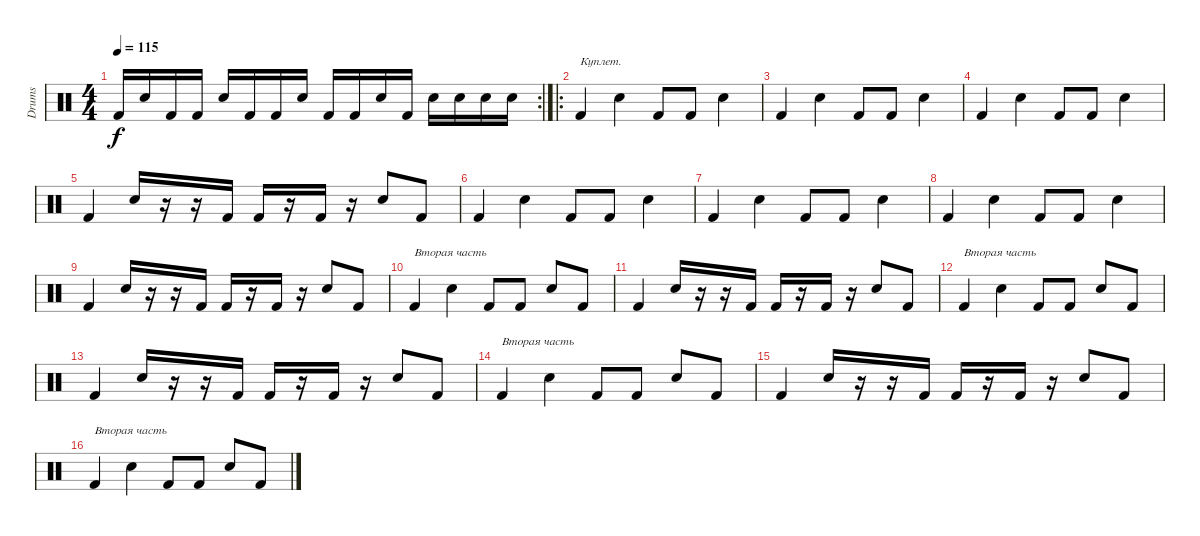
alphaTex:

\track ("Drums" "Drums") {instrument percussion}
\staff {score}
\articulation defaults
\rc 2
\ts (4 4)
\tempo 115
\clef neutral
\ks c "Kick (hit) 2".16{dy f} "Snare (hit) 2".16 "Kick (hit) 2".16 "Kick (hit) 2".16 "Snare (hit) 2".16 "Kick (hit) 2".16 "Kick (hit) 2".16 "Snare (hit) 2".16 "Kick (hit) 2".16 "Kick (hit) 2".16 "Snare (hit) 2".16 "Kick (hit) 2".16 "Snare (hit) 2".16 "Snare (hit) 2".16 "Snare (hit) 2".16 "Snare (hit) 2".16
|
\ro "Kick (hit) 2".4{txt "Куплет."} "Snare (hit) 2".4 "Kick (hit) 2".8 "Kick (hit) 2".8 "Snare (hit) 2".4
|
"Kick (hit) 2".4 "Snare (hit) 2".4 "Kick (hit) 2".8 "Kick (hit) 2".8 "Snare (hit) 2".4 |
"Kick (hit) 2".4 "Snare (hit) 2".4 "Kick (hit) 2".8 "Kick (hit) 2".8 "Snare (hit) 2".4 |
"Kick (hit) 2".4 "Snare (hit) 2".16 r.16 r.16 "Kick (hit) 2".16 "Kick (hit) 2".16 r.16 "Kick (hit) 2".16 r.16 "Snare (hit) 2".8 "Kick (hit) 2".8 |
"Kick (hit) 2".4 "Snare (hit) 2".4 "Kick (hit) 2".8 "Kick (hit) 2".8 "Snare (hit) 2".4 |
"Kick (hit) 2".4 "Snare (hit) 2".4 "Kick (hit) 2".8 "Kick (hit) 2".8 "Snare (hit) 2".4 |
"Kick (hit) 2".4 "Snare (hit) 2".4 "Kick (hit) 2".8 "Kick (hit) 2".8 "Snare (hit) 2".4 |
"Kick (hit) 2".4 "Snare (hit) 2".16 r.16 r.16 "Kick (hit) 2".16 "Kick (hit) 2".16 r.16 "Kick (hit) 2".16 r.16 "Snare (hit) 2".8 "Kick (hit) 2".8 |
"Kick (hit) 2".4{txt "Вторая часть"} "Snare (hit) 2".4 "Kick (hit) 2".8 "Kick (hit) 2".8 "Snare (hit) 2".8 "Kick (hit) 2".8 |
"Kick (hit) 2".4 "Snare (hit) 2".16 r.16 r.16 "Kick (hit) 2".16 "Kick (hit) 2".16 r.16 "Kick (hit) 2".16 r.16 "Snare (hit) 2".8 "Kick (hit) 2".8 |
"Kick (hit) 2".4{txt "Вторая часть"} "Snare (hit) 2".4 "Kick (hit) 2".8 "Kick (hit) 2".8 "Snare (hit) 2".8 "Kick (hit) 2".8 |
"Kick (hit) 2".4 "Snare (hit) 2".16 r.16 r.16 "Kick (hit) 2".16 "Kick (hit) 2".16 r.16 "Kick (hit) 2".16 r.16 "Snare (hit) 2".8 "Kick (hit) 2".8 |
"Kick (hit) 2".4{txt "Вторая часть"} "Snare (hit) 2".4 "Kick (hit) 2".8 "Kick (hit) 2".8 "Snare (hit) 2".8 "Kick (hit) 2".8 |
"Kick (hit) 2".4 "Snare (hit) 2".16 r.16 r.16 "Kick (hit) 2".16 "Kick (hit) 2".16 r.16 "Kick (hit) 2".16 r.16 "Snare (hit) 2".8 "Kick (hit) 2".8 |
"Kick (hit) 2".4{txt "Вторая часть"} "Snare (hit) 2".4 "Kick (hit) 2".8 "Kick (hit) 2".8 "Snare (hit) 2".8 "Kick (hit) 2".8
